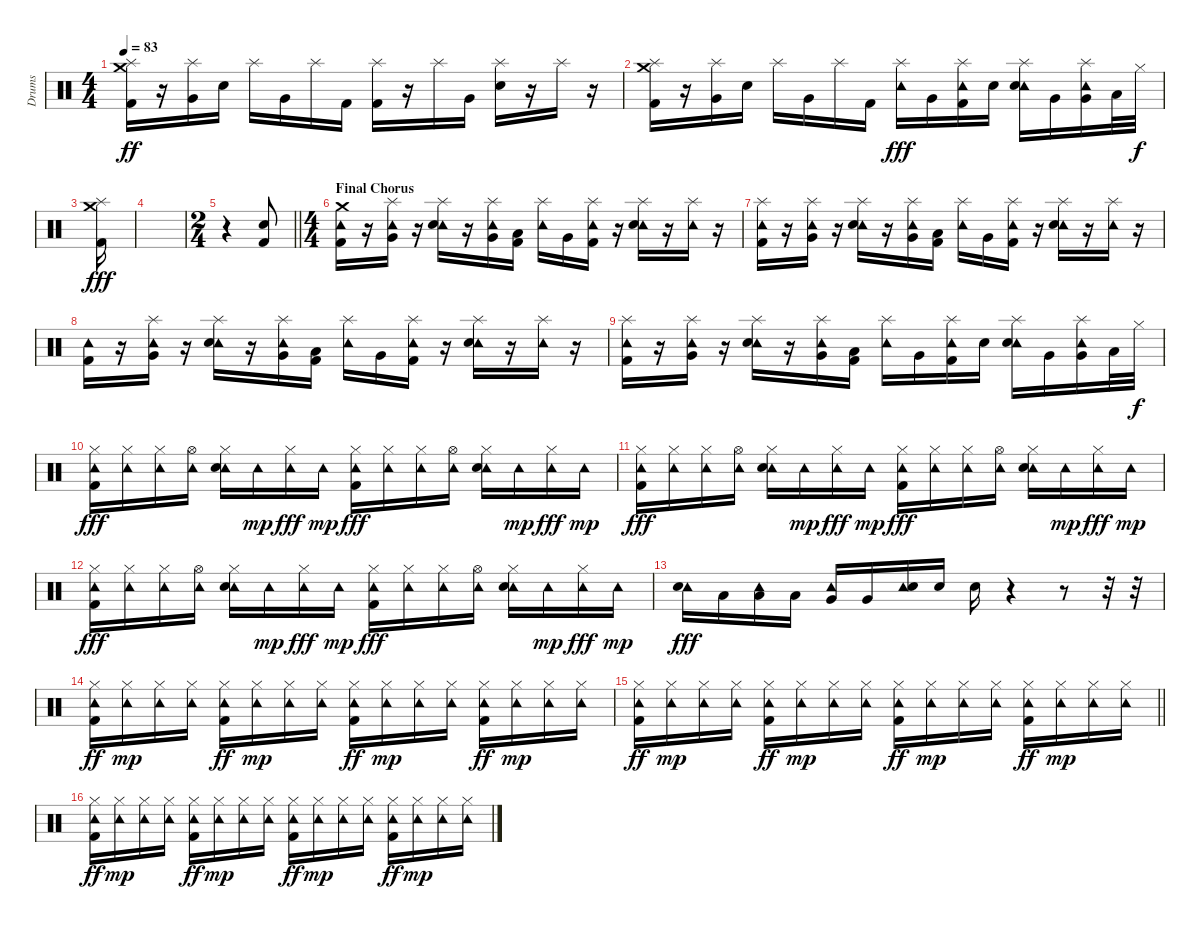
\track ("Drums" "Drums") {instrument percussion}
\staff {score}
\articulation defaults
\ts (4 4)
\tempo 83
\clef neutral
\ks c
("Crash medium (hit)" "Splash (hit)" "Kick (hit) 2").16{dy ff} r.16 ("Splash (hit)" "Very Low Tom (hit)").16 "Snare (hit) 2".16 "Splash (hit)".16 "Very Low Tom (hit)".16 "Splash (hit)".16 "Kick (hit) 2".16 ("Splash (hit)" "Kick (hit) 2").16 r.16 "Splash (hit)".16 "Very Low Tom (hit)".16 ("Splash (hit)" "Snare (hit) 2").16 r.16 "Splash (hit)".16 r.16 |
("Crash medium (hit)" "Splash (hit)" "Kick (hit) 2").16 r.16 ("Splash (hit)" "Very Low Tom (hit)").16 "Snare (hit) 2".16 "Splash (hit)".16 "Very Low Tom (hit)".16 "Splash (hit)".16 "Kick (hit) 2".16 ("Splash (hit)" "Tambourine (hit)").16{dy fff} "Very Low Tom (hit)".16 ("Splash (hit)" "Tambourine (hit)" "Kick (hit) 2").16 "Snare (hit) 2".16 ("Splash (hit)" "Tambourine (hit)" "Snare (hit) 2").16 "Very Low Tom (hit)".16 ("Splash (hit)" "Tambourine (hit)" "Very Low Tom (hit)").16 "Low Floor Tom (hit)".32 "Hi-Hat (closed)".32{dy f} |
("Crash medium (hit)" "Splash (hit)" "Kick (hit) 2").16{dy fff} |
|
\ts (2 4)
\barLineRight lightlight
r.4 ("Snare (hit) 2" "Kick (hit) 2").8 |
\ts (4 4)
\section ("" "Final Chorus")
("Crash medium (hit)" "Tambourine (hit)" "Kick (hit) 2").16 r.16 ("Splash (hit)" "Tambourine (hit)" "Very Low Tom (hit)").16 r.16 ("Splash (hit)" "Tambourine (hit)" "Snare (hit) 2").16 r.16 ("Splash (hit)" "Tambourine (hit)" "Very Low Tom (hit)").16 ("Low Floor Tom (hit)" "Kick (hit) 2").16 ("Splash (hit)" "Tambourine (hit)").16 "Very Low Tom (hit)".16 ("Splash (hit)" "Tambourine (hit)" "Kick (hit) 2").16 r.16 ("Splash (hit)" "Tambourine (hit)" "Snare (hit) 2").16 r.16 ("Splash (hit)" "Tambourine (hit)").16 r.16 |
("Splash (hit)" "Tambourine (hit)" "Kick (hit) 2").16 r.16 ("Splash (hit)" "Tambourine (hit)" "Very Low Tom (hit)").16 r.16 ("Splash (hit)" "Tambourine (hit)" "Snare (hit) 2").16 r.16 ("Splash (hit)" "Tambourine (hit)" "Very Low Tom (hit)").16 ("Low Floor Tom (hit)" "Kick (hit) 2").16 ("Splash (hit)" "Tambourine (hit)").16 "Very Low Tom (hit)".16 ("Splash (hit)" "Tambourine (hit)" "Kick (hit) 2").16 r.16 ("Splash (hit)" "Tambourine (hit)" "Snare (hit) 2").16 r.16 ("Splash (hit)" "Tambourine (hit)").16 r.16 |
("Tambourine (hit)" "Kick (hit) 2").16 r.16 ("Splash (hit)" "Tambourine (hit)" "Very Low Tom (hit)").16 r.16 ("Splash (hit)" "Tambourine (hit)" "Snare (hit) 2").16 r.16 ("Splash (hit)" "Tambourine (hit)" "Very Low Tom (hit)").16 ("Low Floor Tom (hit)" "Kick (hit) 2").16 ("Splash (hit)" "Tambourine (hit)").16 "Very Low Tom (hit)".16 ("Splash (hit)" "Tambourine (hit)" "Kick (hit) 2").16 r.16 ("Splash (hit)" "Tambourine (hit)" "Snare (hit) 2").16 r.16 ("Splash (hit)" "Tambourine (hit)").16 r.16 |
("Splash (hit)" "Tambourine (hit)" "Kick (hit) 2").16 r.16 ("Splash (hit)" "Tambourine (hit)" "Very Low Tom (hit)").16 r.16 ("Splash (hit)" "Tambourine (hit)" "Snare (hit) 2").16 r.16 ("Splash (hit)" "Tambourine (hit)" "Very Low Tom (hit)").16 ("Low Floor Tom (hit)" "Kick (hit) 2").16 ("Splash (hit)" "Tambourine (hit)").16 "Very Low Tom (hit)".16 ("Splash (hit)" "Tambourine (hit)" "Kick (hit) 2").16 "Snare (hit) 2".16 ("Splash (hit)" "Tambourine (hit)" "Snare (hit) 2").16 "Very Low Tom (hit)".16 ("Splash (hit)" "Tambourine (hit)" "Very Low Tom (hit)").16 "Low Floor Tom (hit)".32 "Hi-Hat (closed)".32{dy f} |
("Tambourine (hit)" "Hi-Hat (closed)" "Kick (hit) 2").16{dy fff} ("Tambourine (hit)" "Hi-Hat (closed)").16 ("Tambourine (hit)" "Hi-Hat (closed)").16 ("Tambourine (hit)" "Hi-Hat (open)").16 ("Tambourine (hit)" "Hi-Hat (closed)" "Snare (hit) 2").16 "Tambourine (hit)".16{dy mp} ("Tambourine (hit)" "Hi-Hat (closed)").16{dy fff} "Tambourine (hit)".16{dy mp} ("Tambourine (hit)" "Hi-Hat (closed)" "Kick (hit) 2").16{dy fff} ("Tambourine (hit)" "Hi-Hat (closed)").16 ("Tambourine (hit)" "Hi-Hat (closed)").16 ("Tambourine (hit)" "Hi-Hat (open)").16 ("Tambourine (hit)" "Hi-Hat (closed)" "Snare (hit) 2").16 "Tambourine (hit)".16{dy mp} ("Tambourine (hit)" "Hi-Hat (closed)").16{dy fff} "Tambourine (hit)".16{dy mp} |
("Tambourine (hit)" "Hi-Hat (closed)" "Kick (hit) 2").16{dy fff} ("Tambourine (hit)" "Hi-Hat (closed)").16 ("Tambourine (hit)" "Hi-Hat (closed)").16 ("Tambourine (hit)" "Hi-Hat (open)").16 ("Tambourine (hit)" "Hi-Hat (closed)" "Snare (hit) 2").16 "Tambourine (hit)".16{dy mp} ("Tambourine (hit)" "Hi-Hat (closed)").16{dy fff} "Tambourine (hit)".16{dy mp} ("Tambourine (hit)" "Hi-Hat (closed)" "Kick (hit) 2").16{dy fff} ("Tambourine (hit)" "Hi-Hat (closed)").16 ("Tambourine (hit)" "Hi-Hat (closed)").16 ("Tambourine (hit)" "Hi-Hat (open)").16 ("Tambourine (hit)" "Hi-Hat (closed)" "Snare (hit) 2").16 "Tambourine (hit)".16{dy mp} ("Tambourine (hit)" "Hi-Hat (closed)").16{dy fff} "Tambourine (hit)".16{dy mp} |
("Tambourine (hit)" "Hi-Hat (closed)" "Kick (hit) 2").16{dy fff} ("Tambourine (hit)" "Hi-Hat (closed)").16 ("Tambourine (hit)" "Hi-Hat (closed)").16 ("Tambourine (hit)" "Hi-Hat (open)").16 ("Tambourine (hit)" "Hi-Hat (closed)" "Snare (hit) 2").16 "Tambourine (hit)".16{dy mp} ("Tambourine (hit)" "Hi-Hat (closed)").16{dy fff} "Tambourine (hit)".16{dy mp} ("Tambourine (hit)" "Hi-Hat (closed)" "Kick (hit) 2").16{dy fff} ("Tambourine (hit)" "Hi-Hat (closed)").16 ("Tambourine (hit)" "Hi-Hat (closed)").16 ("Tambourine (hit)" "Hi-Hat (open)").16 ("Tambourine (hit)" "Hi-Hat (closed)" "Snare (hit) 2").16 "Tambourine (hit)".16{dy mp} ("Tambourine (hit)" "Hi-Hat (closed)").16{dy fff} "Tambourine (hit)".16{dy mp} |
("Tambourine (hit)" "Snare (hit) 2").16{dy fff} "Low Floor Tom (hit)".16 ("Tambourine (hit)" "Low Floor Tom (hit)").16 "Low Floor Tom (hit)".16 ("Tambourine (hit)" "Very Low Tom (hit)").16 "Very Low Tom (hit)".16 ("Tambourine (hit)" "Snare (hit) 2").16 "Snare (hit) 2".16 "Snare (hit) 2".16 r.4 r.8 r.32 r.32 |
("Hi-Hat (closed)" "Tambourine (hit)" "Kick (hit) 2").16{dy ff} ("Hi-Hat (closed)" "Tambourine (hit)").16{dy mp} ("Hi-Hat (closed)" "Tambourine (hit)").16 ("Hi-Hat (closed)" "Tambourine (hit)").16 ("Hi-Hat (closed)" "Tambourine (hit)" "Kick (hit) 2").16{dy ff} ("Hi-Hat (closed)" "Tambourine (hit)").16{dy mp} ("Hi-Hat (closed)" "Tambourine (hit)").16 ("Hi-Hat (closed)" "Tambourine (hit)").16 ("Hi-Hat (closed)" "Tambourine (hit)" "Kick (hit) 2").16{dy ff} ("Hi-Hat (closed)" "Tambourine (hit)").16{dy mp} ("Hi-Hat (closed)" "Tambourine (hit)").16 ("Hi-Hat (closed)" "Tambourine (hit)").16 ("Hi-Hat (closed)" "Tambourine (hit)" "Kick (hit) 2").16{dy ff} ("Hi-Hat (closed)" "Tambourine (hit)").16{dy mp} ("Hi-Hat (closed)" "Tambourine (hit)").16 ("Hi-Hat (closed)" "Tambourine (hit)").16 |
\barLineRight lightlight
("Hi-Hat (closed)" "Tambourine (hit)" "Kick (hit) 2").16{dy ff} ("Hi-Hat (closed)" "Tambourine (hit)").16{dy mp} ("Hi-Hat (closed)" "Tambourine (hit)").16 ("Hi-Hat (closed)" "Tambourine (hit)").16 ("Hi-Hat (closed)" "Tambourine (hit)" "Kick (hit) 2").16{dy ff} ("Hi-Hat (closed)" "Tambourine (hit)").16{dy mp} ("Hi-Hat (closed)" "Tambourine (hit)").16 ("Hi-Hat (closed)" "Tambourine (hit)").16 ("Hi-Hat (closed)" "Tambourine (hit)" "Kick (hit) 2").16{dy ff} ("Hi-Hat (closed)" "Tambourine (hit)").16{dy mp} ("Hi-Hat (closed)" "Tambourine (hit)").16 ("Hi-Hat (closed)" "Tambourine (hit)").16 ("Hi-Hat (closed)" "Tambourine (hit)" "Kick (hit) 2").16{dy ff} ("Hi-Hat (closed)" "Tambourine (hit)").16{dy mp} ("Hi-Hat (closed)" "Tambourine (hit)").16 ("Hi-Hat (closed)" "Tambourine (hit)").16 |
("Hi-Hat (closed)" "Tambourine (hit)" "Kick (hit) 2").16{dy ff} ("Hi-Hat (closed)" "Tambourine (hit)").16{dy mp} ("Hi-Hat (closed)" "Tambourine (hit)").16 ("Hi-Hat (closed)" "Tambourine (hit)").16 ("Hi-Hat (closed)" "Tambourine (hit)" "Kick (hit) 2").16{dy ff} ("Hi-Hat (closed)" "Tambourine (hit)").16{dy mp} ("Hi-Hat (closed)" "Tambourine (hit)").16 ("Hi-Hat (closed)" "Tambourine (hit)").16 ("Hi-Hat (closed)" "Tambourine (hit)" "Kick (hit) 2").16{dy ff} ("Hi-Hat (closed)" "Tambourine (hit)").16{dy mp} ("Hi-Hat (closed)" "Tambourine (hit)").16 ("Hi-Hat (closed)" "Tambourine (hit)").16 ("Hi-Hat (closed)" "Tambourine (hit)" "Kick (hit) 2").16{dy ff} ("Hi-Hat (closed)" "Tambourine (hit)").16{dy mp} ("Hi-Hat (closed)" "Tambourine (hit)").16 ("Hi-Hat (closed)" "Tambourine (hit)").16
